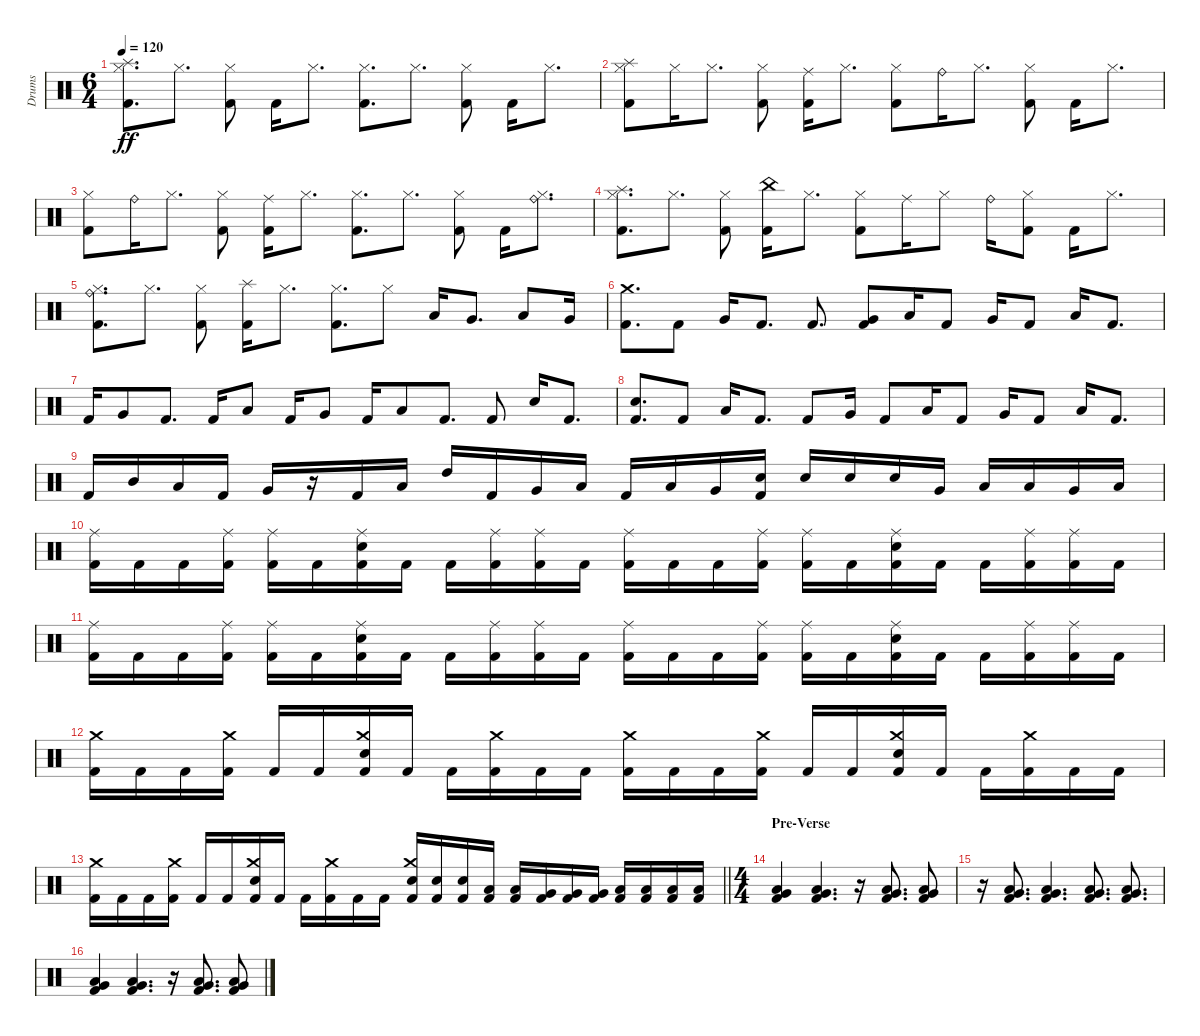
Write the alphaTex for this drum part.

\track ("Drums" "Drums") {instrument percussion}
\staff {score}
\articulation defaults
\ts (6 4)
\tempo 120
\clef neutral
\ks c
("Splash (hit)" "Hi-Hat (closed)" "Kick (hit) 2").8{d dy ff} "Hi-Hat (closed)".8{d} ("Hi-Hat (closed)" "Kick (hit) 2").8 "Kick (hit) 2".16 "Hi-Hat (closed)".8{d} ("Hi-Hat (closed)" "Kick (hit) 2").8{d} "Hi-Hat (closed)".8{d} ("Hi-Hat (closed)" "Kick (hit) 2").8 "Kick (hit) 2".16 "Hi-Hat (closed)".8{d} |
("Splash (hit)" "Hi-Hat (closed)" "Kick (hit) 2").8 "Hi-Hat (closed)".16 "Hi-Hat (closed)".8{d} ("Hi-Hat (closed)" "Kick (hit) 2").8 ("Ride (middle)" "Kick (hit) 2").16 "Hi-Hat (closed)".8{d} ("Hi-Hat (closed)" "Kick (hit) 2").8 "Ride (bell)".16 "Hi-Hat (closed)".8{d} ("Hi-Hat (closed)" "Kick (hit) 2").8 "Kick (hit) 2".16 "Hi-Hat (closed)".8{d} |
("Hi-Hat (closed)" "Kick (hit) 2").8 "Ride (bell)".16 "Hi-Hat (closed)".8{d} ("Hi-Hat (closed)" "Kick (hit) 2").8 ("Ride (middle)" "Kick (hit) 2").16 "Hi-Hat (closed)".8{d} ("Hi-Hat (closed)" "Kick (hit) 2").8{d} "Hi-Hat (closed)".8{d} ("Hi-Hat (closed)" "Kick (hit) 2").8 "Kick (hit) 2".16 ("Ride (bell)" "Hi-Hat (closed)").8{d} |
("Splash (hit)" "Hi-Hat (closed)" "Kick (hit) 2").8{d} "Hi-Hat (closed)".8{d} ("Hi-Hat (closed)" "Kick (hit) 2").8 ("China (hit)" "Kick (hit) 2").16 "Hi-Hat (closed)".8{d} ("Hi-Hat (closed)" "Kick (hit) 2").8 "Ride (middle)".16 "Hi-Hat (closed)".8 "Ride (bell)".16 ("Hi-Hat (closed)" "Kick (hit) 2").8 "Kick (hit) 2".16 "Hi-Hat (closed)".8{d} |
("Ride (bell)" "Hi-Hat (closed)" "Kick (hit) 2").8{d} "Hi-Hat (closed)".8{d} ("Hi-Hat (closed)" "Kick (hit) 2").8 ("Splash (hit)" "Kick (hit) 2").16 "Hi-Hat (closed)".8{d} ("Hi-Hat (closed)" "Kick (hit) 2").8{d} "Hi-Hat (closed)".8 "Low Tom (hit)".16 "Very Low Tom (hit)".8{d} "Low Floor Tom (hit)".8 "Very Low Tom (hit)".16 |
("Crash medium (hit)" "Kick (hit) 2").8{d} "Kick (hit) 2".8 "Very Low Tom (hit)".16 "Kick (hit) 2".8{d} "Kick (hit) 2".8{d} ("Very Low Tom (hit)" "Kick (hit) 2").8 "Low Tom (hit)".16 "Kick (hit) 2".8 "Very Low Tom (hit)".16 "Kick (hit) 2".8 "Low Floor Tom (hit)".16 "Kick (hit) 2".8{d} |
"Kick (hit) 2".16 "Very Low Tom (hit)".8 "Kick (hit) 2".8{d} "Kick (hit) 2".16 "Low Tom (hit)".8 "Kick (hit) 2".16 "Very Low Tom (hit)".8 "Kick (hit) 2".16 "Low Floor Tom (hit)".8 "Kick (hit) 2".8{d} "Kick (hit) 2".8 "Electric Snare (hit)".16 "Kick (hit) 2".8{d} |
("Electric Snare (hit)" "Kick (hit) 2").8{d} "Kick (hit) 2".8 "Low Tom (hit)".16 "Kick (hit) 2".8{d} "Kick (hit) 2".8 "Very Low Tom (hit)".16 "Kick (hit) 2".8 "Low Tom (hit)".16 "Kick (hit) 2".8 "Very Low Tom (hit)".16 "Kick (hit) 2".8 "Low Floor Tom (hit)".16 "Kick (hit) 2".8{d} |
"Kick (hit) 2".16 "Mid Tom (hit)".16 "Low Tom (hit)".16 "Kick (hit) 2".16 "Very Low Tom (hit)".16 r.16 "Kick (hit) 2".16 "Low Floor Tom (hit)".16 "High Tom (hit)".16 "Kick (hit) 2".16 "Very Low Tom (hit)".16 "Low Tom (hit)".16 "Kick (hit) 2".16 "Low Floor Tom (hit)".16 "Very Low Tom (hit)".16 ("Electric Snare (hit)" "Kick (hit) 2").16 "Electric Snare (hit)".16 "Electric Snare (hit)".16 "Electric Snare (hit)".16 "Very Low Tom (hit)".16 "Low Floor Tom (hit)".16 "Low Tom (hit)".16 "Very Low Tom (hit)".16 "Low Floor Tom (hit)".16 |
("Ride (middle)" "Kick (hit) 2").16 "Kick (hit) 2".16 "Kick (hit) 2".16 ("Ride (middle)" "Kick (hit) 2").16 ("Ride (middle)" "Kick (hit) 2").16 "Kick (hit) 2".16 ("Ride (middle)" "Electric Snare (hit)" "Kick (hit) 2").16 "Kick (hit) 2".16 "Kick (hit) 2".16 ("Ride (middle)" "Kick (hit) 2").16 ("Ride (middle)" "Kick (hit) 2").16 "Kick (hit) 2".16 ("Ride (middle)" "Kick (hit) 2").16 "Kick (hit) 2".16 "Kick (hit) 2".16 ("Ride (middle)" "Kick (hit) 2").16 ("Ride (middle)" "Kick (hit) 2").16 "Kick (hit) 2".16 ("Ride (middle)" "Electric Snare (hit)" "Kick (hit) 2").16 "Kick (hit) 2".16 "Kick (hit) 2".16 ("Ride (middle)" "Kick (hit) 2").16 ("Ride (middle)" "Kick (hit) 2").16 "Kick (hit) 2".16 |
("Ride (middle)" "Kick (hit) 2").16 "Kick (hit) 2".16 "Kick (hit) 2".16 ("Ride (middle)" "Kick (hit) 2").16 ("Ride (middle)" "Kick (hit) 2").16 "Kick (hit) 2".16 ("Ride (middle)" "Electric Snare (hit)" "Kick (hit) 2").16 "Kick (hit) 2".16 "Kick (hit) 2".16 ("Ride (middle)" "Kick (hit) 2").16 ("Ride (middle)" "Kick (hit) 2").16 "Kick (hit) 2".16 ("Ride (middle)" "Kick (hit) 2").16 "Kick (hit) 2".16 "Kick (hit) 2".16 ("Ride (middle)" "Kick (hit) 2").16 ("Ride (middle)" "Kick (hit) 2").16 "Kick (hit) 2".16 ("Ride (middle)" "Electric Snare (hit)" "Kick (hit) 2").16 "Kick (hit) 2".16 "Kick (hit) 2".16 ("Ride (middle)" "Kick (hit) 2").16 ("Ride (middle)" "Kick (hit) 2").16 "Kick (hit) 2".16 |
("Crash medium (hit)" "Kick (hit) 2").16 "Kick (hit) 2".16 "Kick (hit) 2".16 ("Crash medium (hit)" "Kick (hit) 2").16 "Kick (hit) 2".16 "Kick (hit) 2".16 ("Crash medium (hit)" "Electric Snare (hit)" "Kick (hit) 2").16 "Kick (hit) 2".16 "Kick (hit) 2".16 ("Crash medium (hit)" "Kick (hit) 2").16 "Kick (hit) 2".16 "Kick (hit) 2".16 ("Crash medium (hit)" "Kick (hit) 2").16 "Kick (hit) 2".16 "Kick (hit) 2".16 ("Crash medium (hit)" "Kick (hit) 2").16 "Kick (hit) 2".16 "Kick (hit) 2".16 ("Crash medium (hit)" "Electric Snare (hit)" "Kick (hit) 2").16 "Kick (hit) 2".16 "Kick (hit) 2".16 ("Crash medium (hit)" "Kick (hit) 2").16 "Kick (hit) 2".16 "Kick (hit) 2".16 |
\barLineRight lightlight
("Crash medium (hit)" "Kick (hit) 2").16 "Kick (hit) 2".16 "Kick (hit) 2".16 ("Crash medium (hit)" "Kick (hit) 2").16 "Kick (hit) 2".16 "Kick (hit) 2".16 ("Crash medium (hit)" "Electric Snare (hit)" "Kick (hit) 2").16 "Kick (hit) 2".16 "Kick (hit) 2".16 ("Crash medium (hit)" "Kick (hit) 2").16 "Kick (hit) 2".16 "Kick (hit) 2".16 ("Crash medium (hit)" "Electric Snare (hit)" "Kick (hit) 2").16 ("Electric Snare (hit)" "Kick (hit) 2").16 ("Electric Snare (hit)" "Kick (hit) 2").16 ("Low Tom (hit)" "Kick (hit) 2").16 ("Low Tom (hit)" "Kick (hit) 2").16 ("Very Low Tom (hit)" "Kick (hit) 2").16 ("Very Low Tom (hit)" "Kick (hit) 2").16 ("Very Low Tom (hit)" "Kick (hit) 2").16 ("Low Floor Tom (hit)" "Kick (hit) 2").16 ("Low Floor Tom (hit)" "Kick (hit) 2").16 ("Low Floor Tom (hit)" "Kick (hit) 2").16 ("Low Floor Tom (hit)" "Kick (hit) 2").16 |
\ts (4 4)
\section ("" "Pre-Verse")
("Very Low Tom (hit)" "Low Floor Tom (hit)" "Kick (hit) 2").4 ("Very Low Tom (hit)" "Low Floor Tom (hit)" "Kick (hit) 2").4{d} r.16 ("Very Low Tom (hit)" "Low Floor Tom (hit)" "Kick (hit) 2").8{d} ("Very Low Tom (hit)" "Low Floor Tom (hit)" "Kick (hit) 2").8 |
r.16 ("Very Low Tom (hit)" "Low Floor Tom (hit)" "Kick (hit) 2").8{d} ("Very Low Tom (hit)" "Low Floor Tom (hit)" "Kick (hit) 2").4{d} ("Very Low Tom (hit)" "Low Floor Tom (hit)" "Kick (hit) 2").8{d} ("Very Low Tom (hit)" "Low Floor Tom (hit)" "Kick (hit) 2").8{d} |
("Very Low Tom (hit)" "Low Floor Tom (hit)" "Kick (hit) 2").4 ("Very Low Tom (hit)" "Low Floor Tom (hit)" "Kick (hit) 2").4{d} r.16 ("Very Low Tom (hit)" "Low Floor Tom (hit)" "Kick (hit) 2").8{d} ("Very Low Tom (hit)" "Low Floor Tom (hit)" "Kick (hit) 2").8
